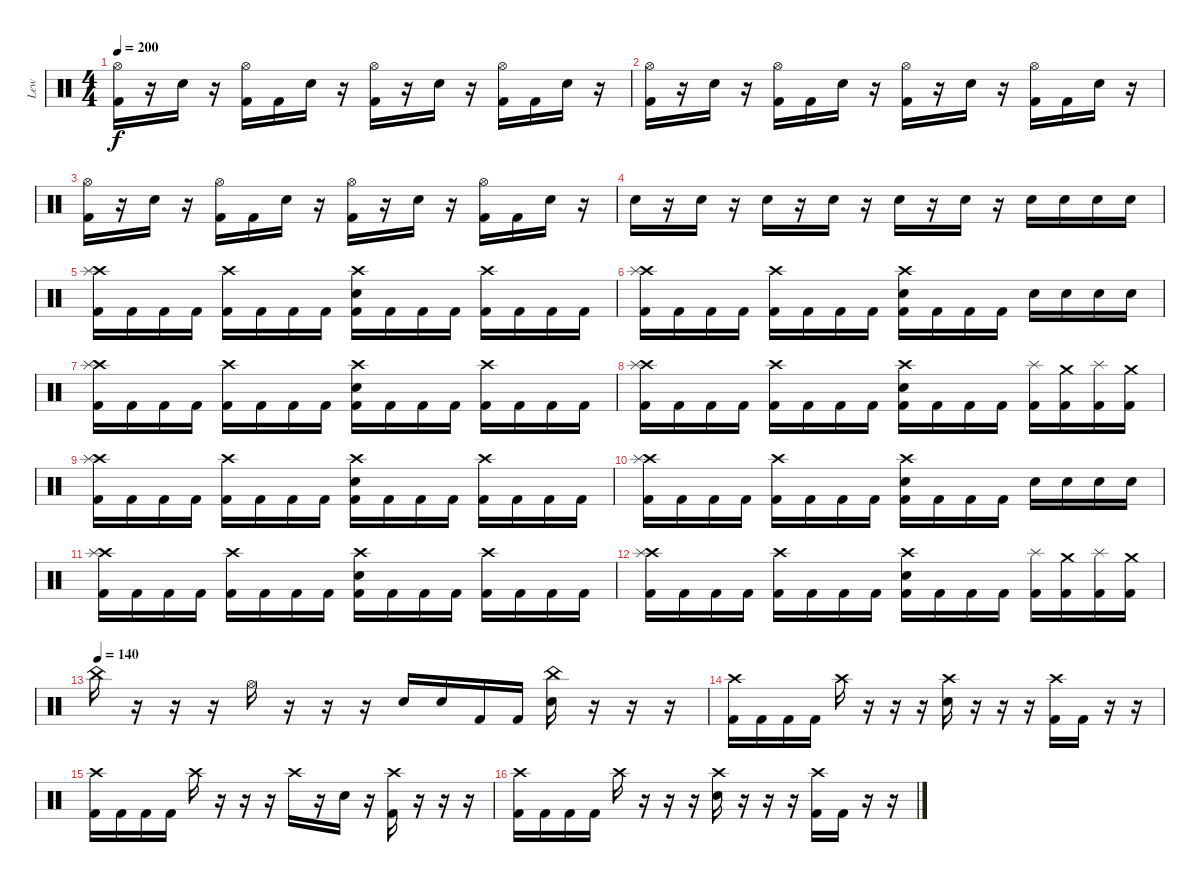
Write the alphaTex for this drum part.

\track ("Lew" "Lew") {instrument percussion}
\staff {score}
\articulation defaults
\ts (4 4)
\tempo 200
\clef neutral
\ks c
("Hi-Hat (open)" "Kick (hit) 2").16{dy f} r.16 "Electric Snare (hit)".16 r.16 ("Hi-Hat (open)" "Kick (hit) 2").16 "Kick (hit) 2".16 "Electric Snare (hit)".16 r.16 ("Hi-Hat (open)" "Kick (hit) 2").16 r.16 "Electric Snare (hit)".16 r.16 ("Hi-Hat (open)" "Kick (hit) 2").16 "Kick (hit) 2".16 "Electric Snare (hit)".16 r.16 |
("Hi-Hat (open)" "Kick (hit) 2").16 r.16 "Electric Snare (hit)".16 r.16 ("Hi-Hat (open)" "Kick (hit) 2").16 "Kick (hit) 2".16 "Electric Snare (hit)".16 r.16 ("Hi-Hat (open)" "Kick (hit) 2").16 r.16 "Electric Snare (hit)".16 r.16 ("Hi-Hat (open)" "Kick (hit) 2").16 "Kick (hit) 2".16 "Electric Snare (hit)".16 r.16 |
("Hi-Hat (open)" "Kick (hit) 2").16 r.16 "Electric Snare (hit)".16 r.16 ("Hi-Hat (open)" "Kick (hit) 2").16 "Kick (hit) 2".16 "Electric Snare (hit)".16 r.16 ("Hi-Hat (open)" "Kick (hit) 2").16 r.16 "Electric Snare (hit)".16 r.16 ("Hi-Hat (open)" "Kick (hit) 2").16 "Kick (hit) 2".16 "Electric Snare (hit)".16 r.16 |
"Electric Snare (hit)".16 r.16 "Electric Snare (hit)".16 r.16 "Electric Snare (hit)".16 r.16 "Electric Snare (hit)".16 r.16 "Electric Snare (hit)".16 r.16 "Electric Snare (hit)".16 r.16 "Electric Snare (hit)".16 "Electric Snare (hit)".16 "Electric Snare (hit)".16 "Electric Snare (hit)".16 |
("Crash high (hit)" "Splash (hit)" "Kick (hit) 2").16 "Kick (hit) 2".16 "Kick (hit) 2".16 "Kick (hit) 2".16 ("Crash high (hit)" "Kick (hit) 2").16 "Kick (hit) 2".16 "Kick (hit) 2".16 "Kick (hit) 2".16 ("Crash high (hit)" "Electric Snare (hit)" "Kick (hit) 2").16 "Kick (hit) 2".16 "Kick (hit) 2".16 "Kick (hit) 2".16 ("Crash high (hit)" "Kick (hit) 2").16 "Kick (hit) 2".16 "Kick (hit) 2".16 "Kick (hit) 2".16 |
("Crash high (hit)" "Splash (hit)" "Kick (hit) 2").16 "Kick (hit) 2".16 "Kick (hit) 2".16 "Kick (hit) 2".16 ("Crash high (hit)" "Kick (hit) 2").16 "Kick (hit) 2".16 "Kick (hit) 2".16 "Kick (hit) 2".16 ("Crash high (hit)" "Electric Snare (hit)" "Kick (hit) 2").16 "Kick (hit) 2".16 "Kick (hit) 2".16 "Kick (hit) 2".16 "Electric Snare (hit)".16 "Electric Snare (hit)".16 "Electric Snare (hit)".16 "Electric Snare (hit)".16 |
("Crash high (hit)" "Splash (hit)" "Kick (hit) 2").16 "Kick (hit) 2".16 "Kick (hit) 2".16 "Kick (hit) 2".16 ("Crash high (hit)" "Kick (hit) 2").16 "Kick (hit) 2".16 "Kick (hit) 2".16 "Kick (hit) 2".16 ("Crash high (hit)" "Electric Snare (hit)" "Kick (hit) 2").16 "Kick (hit) 2".16 "Kick (hit) 2".16 "Kick (hit) 2".16 ("Crash high (hit)" "Kick (hit) 2").16 "Kick (hit) 2".16 "Kick (hit) 2".16 "Kick (hit) 2".16 |
("Crash high (hit)" "Splash (hit)" "Kick (hit) 2").16 "Kick (hit) 2".16 "Kick (hit) 2".16 "Kick (hit) 2".16 ("Crash high (hit)" "Kick (hit) 2").16 "Kick (hit) 2".16 "Kick (hit) 2".16 "Kick (hit) 2".16 ("Crash high (hit)" "Electric Snare (hit)" "Kick (hit) 2").16 "Kick (hit) 2".16 "Kick (hit) 2".16 "Kick (hit) 2".16 ("Splash (hit)" "Kick (hit) 2").16 ("Crash medium (hit)" "Kick (hit) 2").16 ("Splash (hit)" "Kick (hit) 2").16 ("Crash medium (hit)" "Kick (hit) 2").16 |
("Crash high (hit)" "Splash (hit)" "Kick (hit) 2").16 "Kick (hit) 2".16 "Kick (hit) 2".16 "Kick (hit) 2".16 ("Crash high (hit)" "Kick (hit) 2").16 "Kick (hit) 2".16 "Kick (hit) 2".16 "Kick (hit) 2".16 ("Crash high (hit)" "Electric Snare (hit)" "Kick (hit) 2").16 "Kick (hit) 2".16 "Kick (hit) 2".16 "Kick (hit) 2".16 ("Crash high (hit)" "Kick (hit) 2").16 "Kick (hit) 2".16 "Kick (hit) 2".16 "Kick (hit) 2".16 |
("Crash high (hit)" "Splash (hit)" "Kick (hit) 2").16 "Kick (hit) 2".16 "Kick (hit) 2".16 "Kick (hit) 2".16 ("Crash high (hit)" "Kick (hit) 2").16 "Kick (hit) 2".16 "Kick (hit) 2".16 "Kick (hit) 2".16 ("Crash high (hit)" "Electric Snare (hit)" "Kick (hit) 2").16 "Kick (hit) 2".16 "Kick (hit) 2".16 "Kick (hit) 2".16 "Electric Snare (hit)".16 "Electric Snare (hit)".16 "Electric Snare (hit)".16 "Electric Snare (hit)".16 |
("Crash high (hit)" "Splash (hit)" "Kick (hit) 2").16 "Kick (hit) 2".16 "Kick (hit) 2".16 "Kick (hit) 2".16 ("Crash high (hit)" "Kick (hit) 2").16 "Kick (hit) 2".16 "Kick (hit) 2".16 "Kick (hit) 2".16 ("Crash high (hit)" "Electric Snare (hit)" "Kick (hit) 2").16 "Kick (hit) 2".16 "Kick (hit) 2".16 "Kick (hit) 2".16 ("Crash high (hit)" "Kick (hit) 2").16 "Kick (hit) 2".16 "Kick (hit) 2".16 "Kick (hit) 2".16 |
("Crash high (hit)" "Splash (hit)" "Kick (hit) 2").16 "Kick (hit) 2".16 "Kick (hit) 2".16 "Kick (hit) 2".16 ("Crash high (hit)" "Kick (hit) 2").16 "Kick (hit) 2".16 "Kick (hit) 2".16 "Kick (hit) 2".16 ("Crash high (hit)" "Electric Snare (hit)" "Kick (hit) 2").16 "Kick (hit) 2".16 "Kick (hit) 2".16 "Kick (hit) 2".16 ("Splash (hit)" "Kick (hit) 2").16 ("Crash medium (hit)" "Kick (hit) 2").16 ("Splash (hit)" "Kick (hit) 2").16 ("Crash medium (hit)" "Kick (hit) 2").16 |
\tempo (140)
"China (hit)".16 r.16 r.16 r.16 "Hi-Hat (open)".16 r.16 r.16 r.16 "Electric Snare (hit)".16 "Electric Snare (hit)".16 "Kick (hit) 2".16 "Kick (hit) 2".16 ("China (hit)" "Electric Snare (hit)").16 r.16 r.16 r.16 |
("Crash high (hit)" "Kick (hit) 2").16 "Kick (hit) 2".16 "Kick (hit) 2".16 "Kick (hit) 2".16 "Crash high (hit)".16 r.16 r.16 r.16 ("Crash high (hit)" "Electric Snare (hit)").16 r.16 r.16 r.16 ("Crash high (hit)" "Kick (hit) 2").16 "Kick (hit) 2".16 r.16 r.16 |
("Crash high (hit)" "Kick (hit) 2").16 "Kick (hit) 2".16 "Kick (hit) 2".16 "Kick (hit) 2".16 "Crash high (hit)".16 r.16 r.16 r.16 "Crash high (hit)".16 r.16 "Electric Snare (hit)".16 r.16 ("Crash high (hit)" "Kick (hit) 2").16 r.16 r.16 r.16 |
("Crash high (hit)" "Kick (hit) 2").16 "Kick (hit) 2".16 "Kick (hit) 2".16 "Kick (hit) 2".16 "Crash high (hit)".16 r.16 r.16 r.16 ("Crash high (hit)" "Electric Snare (hit)").16 r.16 r.16 r.16 ("Crash high (hit)" "Kick (hit) 2").16 "Kick (hit) 2".16 r.16 r.16
